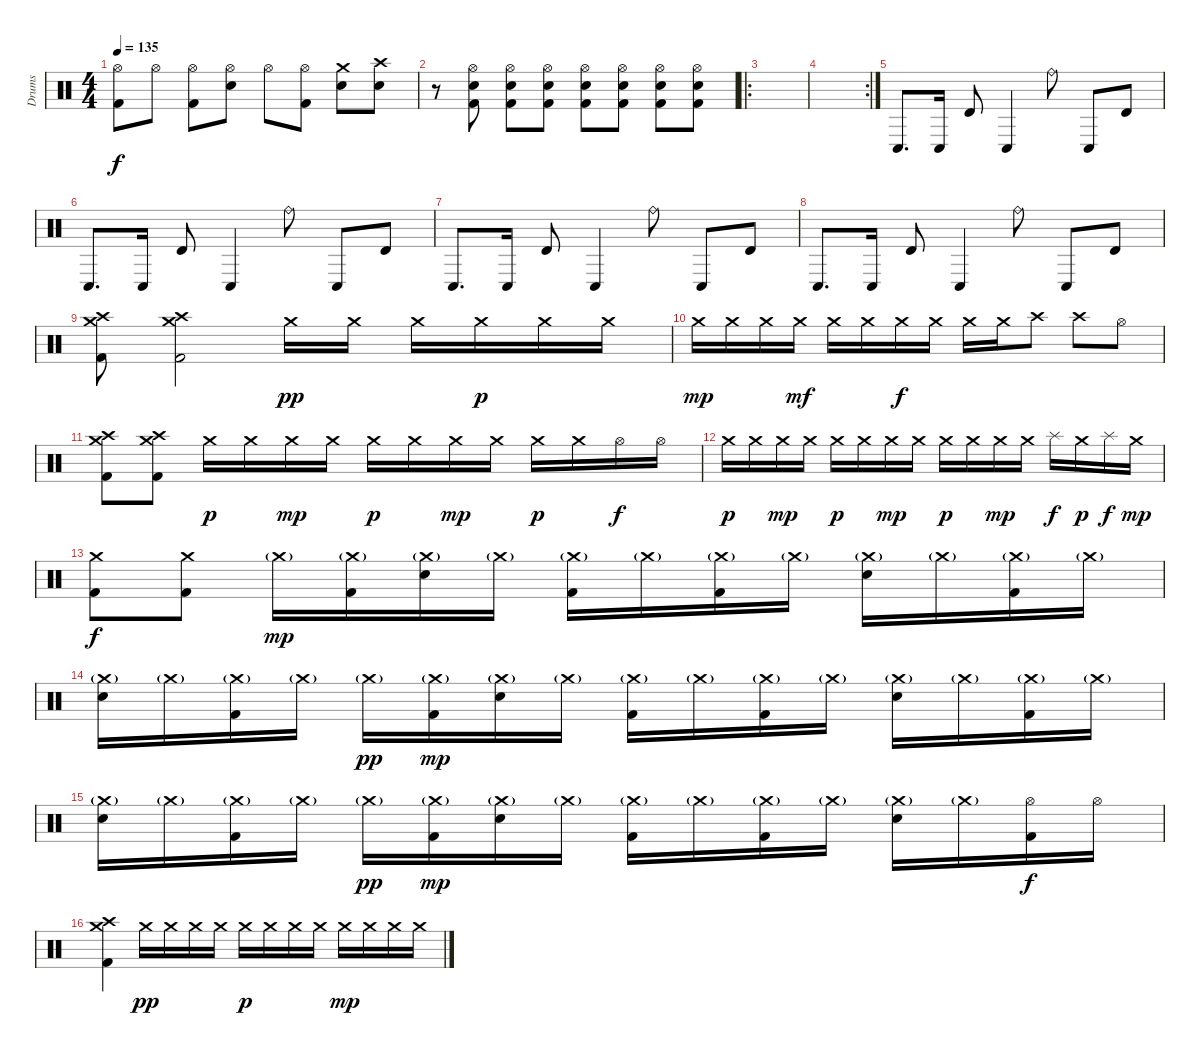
\track ("Drums" "Drums") {instrument percussion}
\staff {score}
\articulation defaults
\ts (4 4)
\tempo 135
\clef neutral
\ks c
("Hi-Hat (open)" "Kick (hit) 2").8{dy f} "Hi-Hat (open)".8 ("Hi-Hat (open)" "Kick (hit) 2").8 ("Hi-Hat (open)" "Electric Snare (hit)").8 "Hi-Hat (open)".8 ("Hi-Hat (open)" "Kick (hit) 2").8 ("Crash medium (hit)" "Electric Snare (hit)").8 ("Crash high (hit)" "Electric Snare (hit)").8 |
r.8 ("Hi-Hat (open)" "Electric Snare (hit)" "Kick (hit) 2").8 ("Hi-Hat (open)" "Electric Snare (hit)" "Kick (hit) 2").8 ("Hi-Hat (open)" "Electric Snare (hit)" "Kick (hit) 2").8 ("Hi-Hat (open)" "Electric Snare (hit)" "Kick (hit) 2").8 ("Hi-Hat (open)" "Electric Snare (hit)" "Kick (hit) 2").8 ("Hi-Hat (open)" "Electric Snare (hit)" "Kick (hit) 2").8 ("Hi-Hat (open)" "Electric Snare (hit)" "Kick (hit) 2").8 |
\ro
|
\rc 2
|
"Conga low (hit)".8{d volume 10} "Conga low (hit)".16 "Timbale high (hit)".8 "Conga low (hit)".4 "Ride (bell)".8 "Conga low (hit)".8 "Timbale high (hit)".8 |
"Conga low (hit)".8{d} "Conga low (hit)".16 "Timbale high (hit)".8 "Conga low (hit)".4 "Ride (bell)".8 "Conga low (hit)".8 "Timbale high (hit)".8 |
"Conga low (hit)".8{d} "Conga low (hit)".16 "Timbale high (hit)".8 "Conga low (hit)".4 "Ride (bell)".8 "Conga low (hit)".8 "Timbale high (hit)".8 |
"Conga low (hit)".8{d} "Conga low (hit)".16 "Timbale high (hit)".8 "Conga low (hit)".4 "Ride (bell)".8 "Conga low (hit)".8 "Timbale high (hit)".8 |
("Crash medium (hit)" "Crash high (hit)" "Kick (hit) 2").8{volume 15} ("Crash medium (hit)" "Crash high (hit)" "Kick (hit) 2").2 "Crash medium (hit)".16{dy pp} "Crash medium (hit)".16 "Crash medium (hit)".16 "Crash medium (hit)".16{dy p} "Crash medium (hit)".16 "Crash medium (hit)".16 |
"Crash medium (hit)".16{dy mp} "Crash medium (hit)".16 "Crash medium (hit)".16 "Crash medium (hit)".16{dy mf} "Crash medium (hit)".16 "Crash medium (hit)".16 "Crash medium (hit)".16{dy f} "Crash medium (hit)".16 "Crash medium (hit)".16 "Crash medium (hit)".16 "Crash high (hit)".8 "Crash high (hit)".8 "Hi-Hat (open)".8 |
("Crash medium (hit)" "Crash high (hit)" "Kick (hit) 2").8 ("Crash medium (hit)" "Crash high (hit)" "Kick (hit) 2").8 "Crash medium (hit)".16{dy p} "Crash medium (hit)".16 "Crash medium (hit)".16{dy mp} "Crash medium (hit)".16 "Crash medium (hit)".16{dy p} "Crash medium (hit)".16 "Crash medium (hit)".16{dy mp} "Crash medium (hit)".16 "Crash medium (hit)".16{dy p} "Crash medium (hit)".16 "Hi-Hat (open)".16{dy f} "Hi-Hat (open)".16 |
"Crash medium (hit)".16{dy p} "Crash medium (hit)".16 "Crash medium (hit)".16{dy mp} "Crash medium (hit)".16 "Crash medium (hit)".16{dy p} "Crash medium (hit)".16 "Crash medium (hit)".16{dy mp} "Crash medium (hit)".16 "Crash medium (hit)".16{dy p} "Crash medium (hit)".16 "Crash medium (hit)".16{dy mp} "Crash medium (hit)".16 "Splash (hit)".16{dy f} "Crash medium (hit)".16{dy p} "Splash (hit)".16{dy f} "Crash medium (hit)".16{dy mp} |
("Crash medium (hit)" "Kick (hit) 2").8{dy f} ("Crash medium (hit)" "Kick (hit) 2").8 "Crash medium (hit)"{g}.16{dy mp} ("Crash medium (hit)"{g} "Kick (hit) 2").16 ("Crash medium (hit)"{g} "Electric Snare (hit)").16 "Crash medium (hit)"{g}.16 ("Crash medium (hit)"{g} "Kick (hit) 2").16 "Crash medium (hit)"{g}.16 ("Crash medium (hit)"{g} "Kick (hit) 2").16 "Crash medium (hit)"{g}.16 ("Crash medium (hit)"{g} "Electric Snare (hit)").16 "Crash medium (hit)"{g}.16 ("Crash medium (hit)"{g} "Kick (hit) 2").16 "Crash medium (hit)"{g}.16 |
("Crash medium (hit)"{g} "Electric Snare (hit)").16 "Crash medium (hit)"{g}.16 ("Crash medium (hit)"{g} "Kick (hit) 2").16 "Crash medium (hit)"{g}.16 "Crash medium (hit)"{g}.16{dy pp} ("Crash medium (hit)"{g} "Kick (hit) 2").16{dy mp} ("Crash medium (hit)"{g} "Electric Snare (hit)").16 "Crash medium (hit)"{g}.16 ("Crash medium (hit)"{g} "Kick (hit) 2").16 "Crash medium (hit)"{g}.16 ("Crash medium (hit)"{g} "Kick (hit) 2").16 "Crash medium (hit)"{g}.16 ("Crash medium (hit)"{g} "Electric Snare (hit)").16 "Crash medium (hit)"{g}.16 ("Crash medium (hit)"{g} "Kick (hit) 2").16 "Crash medium (hit)"{g}.16 |
("Crash medium (hit)"{g} "Electric Snare (hit)").16 "Crash medium (hit)"{g}.16 ("Crash medium (hit)"{g} "Kick (hit) 2").16 "Crash medium (hit)"{g}.16 "Crash medium (hit)"{g}.16{dy pp} ("Crash medium (hit)"{g} "Kick (hit) 2").16{dy mp} ("Crash medium (hit)"{g} "Electric Snare (hit)").16 "Crash medium (hit)"{g}.16 ("Crash medium (hit)"{g} "Kick (hit) 2").16 "Crash medium (hit)"{g}.16 ("Crash medium (hit)"{g} "Kick (hit) 2").16 "Crash medium (hit)"{g}.16 ("Crash medium (hit)"{g} "Electric Snare (hit)").16 "Crash medium (hit)"{g}.16 ("Hi-Hat (open)" "Kick (hit) 2").16{dy f} "Hi-Hat (open)".16 |
("Crash medium (hit)" "Crash high (hit)" "Kick (hit) 2").4 "Crash medium (hit)".16{dy pp} "Crash medium (hit)".16 "Crash medium (hit)".16 "Crash medium (hit)".16 "Crash medium (hit)".16{dy p} "Crash medium (hit)".16 "Crash medium (hit)".16 "Crash medium (hit)".16 "Crash medium (hit)".16{dy mp} "Crash medium (hit)".16 "Crash medium (hit)".16 "Crash medium (hit)".16
